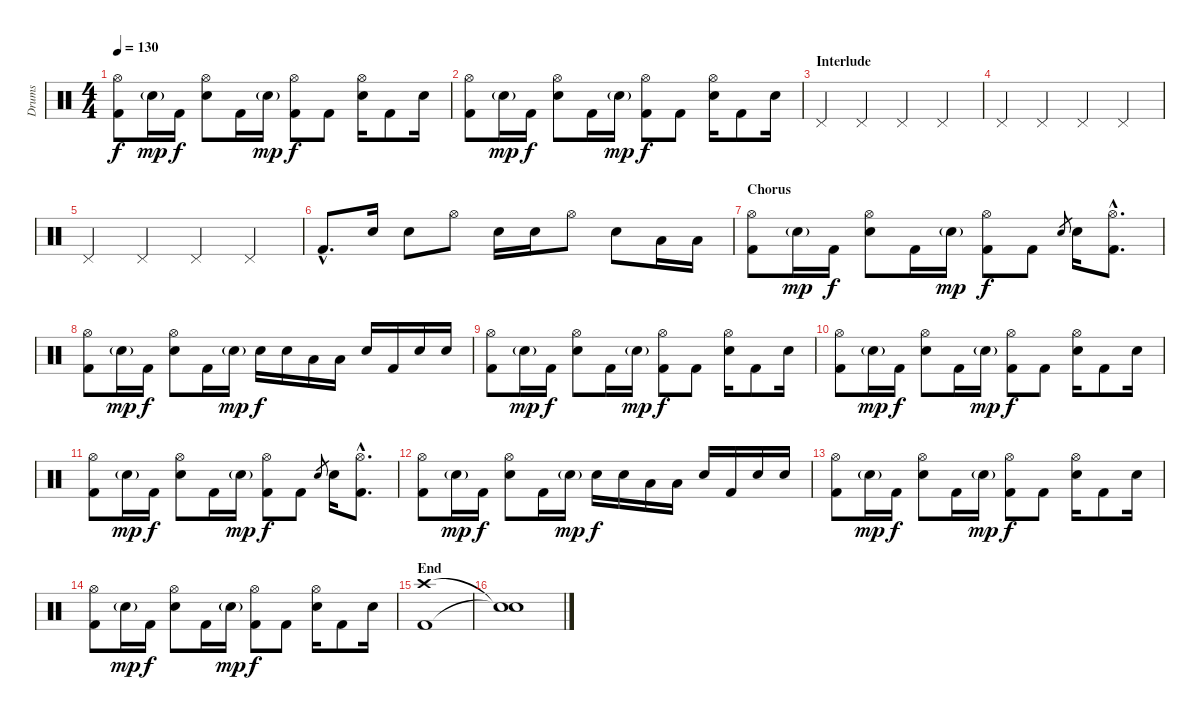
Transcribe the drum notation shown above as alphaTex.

\track ("Drums" "Drums") {instrument percussion}
\staff {score}
\articulation defaults
\ts (4 4)
\tempo 130
\clef neutral
\ks c
("Hi-Hat (open)" "Kick (hit) 2").8{dy f} "Snare (hit) 2"{g}.16{dy mp} "Kick (hit) 2".16{dy f} ("Hi-Hat (open)" "Snare (hit) 2").8 "Kick (hit) 2".16 "Snare (hit) 2"{g}.16{dy mp} ("Hi-Hat (open)" "Kick (hit) 2").8{dy f} "Kick (hit) 2".8 ("Hi-Hat (open)" "Snare (hit) 2").16 "Kick (hit) 2".8 "Snare (hit) 2".16 |
("Hi-Hat (open)" "Kick (hit) 2").8 "Snare (hit) 2"{g}.16{dy mp} "Kick (hit) 2".16{dy f} ("Hi-Hat (open)" "Snare (hit) 2").8 "Kick (hit) 2".16 "Snare (hit) 2"{g}.16{dy mp} ("Hi-Hat (open)" "Kick (hit) 2").8{dy f} "Kick (hit) 2".8 ("Hi-Hat (open)" "Snare (hit) 2").16 "Kick (hit) 2".8 "Snare (hit) 2".16 |
\section ("" "Interlude")
"Pedal Hi-Hat (hit)".4 "Pedal Hi-Hat (hit)".4 "Pedal Hi-Hat (hit)".4 "Pedal Hi-Hat (hit)".4 |
"Pedal Hi-Hat (hit)".4 "Pedal Hi-Hat (hit)".4 "Pedal Hi-Hat (hit)".4 "Pedal Hi-Hat (hit)".4 |
"Pedal Hi-Hat (hit)".4 "Pedal Hi-Hat (hit)".4 "Pedal Hi-Hat (hit)".4 "Pedal Hi-Hat (hit)".4 |
"Kick (hit) 2"{hac}.8{d} "Snare (hit) 2".16 "Snare (hit) 2".8 "Hi-Hat (open)".8 "Snare (hit) 2".16 "Snare (hit) 2".16 "Hi-Hat (open)".8 "Snare (hit) 2".8 "Low Tom (hit)".16 "Low Tom (hit)".16 |
\section ("" "Chorus")
("Hi-Hat (open)" "Kick (hit) 2").8 "Snare (hit) 2"{g}.16{dy mp} "Kick (hit) 2".16{dy f} ("Hi-Hat (open)" "Snare (hit) 2").8 "Kick (hit) 2".16 "Snare (hit) 2"{g}.16{dy mp} ("Hi-Hat (open)" "Kick (hit) 2").8{dy f} "Kick (hit) 2".8 "Snare (hit) 2".8{gr} "Snare (hit) 2".16 ("Hi-Hat (open)"{hac} "Kick (hit) 2"{hac}).8{d} |
("Hi-Hat (open)" "Kick (hit) 2").8 "Snare (hit) 2"{g}.16{dy mp} "Kick (hit) 2".16{dy f} ("Hi-Hat (open)" "Snare (hit) 2").8 "Kick (hit) 2".16 "Snare (hit) 2"{g}.16{dy mp} "Snare (hit) 2".16{dy f} "Snare (hit) 2".16 "Low Tom (hit)".16 "Low Floor Tom (hit)".16 "Snare (hit) 2".16 "Kick (hit) 2".16 "Snare (hit) 2".16 "Snare (hit) 2".16 |
("Hi-Hat (open)" "Kick (hit) 2").8 "Snare (hit) 2"{g}.16{dy mp} "Kick (hit) 2".16{dy f} ("Hi-Hat (open)" "Snare (hit) 2").8 "Kick (hit) 2".16 "Snare (hit) 2"{g}.16{dy mp} ("Hi-Hat (open)" "Kick (hit) 2").8{dy f} "Kick (hit) 2".8 ("Hi-Hat (open)" "Snare (hit) 2").16 "Kick (hit) 2".8 "Snare (hit) 2".16 |
("Hi-Hat (open)" "Kick (hit) 2").8 "Snare (hit) 2"{g}.16{dy mp} "Kick (hit) 2".16{dy f} ("Hi-Hat (open)" "Snare (hit) 2").8 "Kick (hit) 2".16 "Snare (hit) 2"{g}.16{dy mp} ("Hi-Hat (open)" "Kick (hit) 2").8{dy f} "Kick (hit) 2".8 ("Hi-Hat (open)" "Snare (hit) 2").16 "Kick (hit) 2".8 "Snare (hit) 2".16 |
("Hi-Hat (open)" "Kick (hit) 2").8 "Snare (hit) 2"{g}.16{dy mp} "Kick (hit) 2".16{dy f} ("Hi-Hat (open)" "Snare (hit) 2").8 "Kick (hit) 2".16 "Snare (hit) 2"{g}.16{dy mp} ("Hi-Hat (open)" "Kick (hit) 2").8{dy f} "Kick (hit) 2".8 "Snare (hit) 2".8{gr} "Snare (hit) 2".16 ("Hi-Hat (open)"{hac} "Kick (hit) 2"{hac}).8{d} |
("Hi-Hat (open)" "Kick (hit) 2").8 "Snare (hit) 2"{g}.16{dy mp} "Kick (hit) 2".16{dy f} ("Hi-Hat (open)" "Snare (hit) 2").8 "Kick (hit) 2".16 "Snare (hit) 2"{g}.16{dy mp} "Snare (hit) 2".16{dy f} "Snare (hit) 2".16 "Low Tom (hit)".16 "Low Floor Tom (hit)".16 "Snare (hit) 2".16 "Kick (hit) 2".16 "Snare (hit) 2".16 "Snare (hit) 2".16 |
("Hi-Hat (open)" "Kick (hit) 2").8 "Snare (hit) 2"{g}.16{dy mp} "Kick (hit) 2".16{dy f} ("Hi-Hat (open)" "Snare (hit) 2").8 "Kick (hit) 2".16 "Snare (hit) 2"{g}.16{dy mp} ("Hi-Hat (open)" "Kick (hit) 2").8{dy f} "Kick (hit) 2".8 ("Hi-Hat (open)" "Snare (hit) 2").16 "Kick (hit) 2".8 "Snare (hit) 2".16 |
("Hi-Hat (open)" "Kick (hit) 2").8 "Snare (hit) 2"{g}.16{dy mp} "Kick (hit) 2".16{dy f} ("Hi-Hat (open)" "Snare (hit) 2").8 "Kick (hit) 2".16 "Snare (hit) 2"{g}.16{dy mp} ("Hi-Hat (open)" "Kick (hit) 2").8{dy f} "Kick (hit) 2".8 ("Hi-Hat (open)" "Snare (hit) 2").16 "Kick (hit) 2".8 "Snare (hit) 2".16 |
\section ("" "End")
("Crash high (hit)" "Kick (hit) 2").1 |
("Snare (hit)"{t} "Snare (hit)"{t}).1
